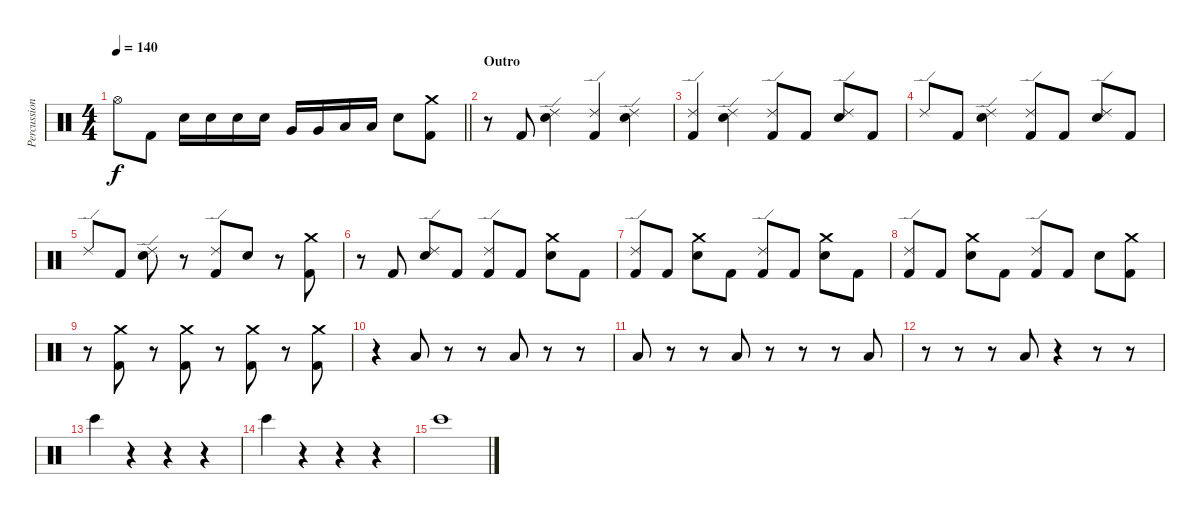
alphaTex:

\track ("Percussion" "Percussion") {instrument percussion}
\staff {score}
\articulation defaults
\ts (4 4)
\tempo 140
\clef neutral
\barLineRight lightlight
\ks c "Hi-Hat (open)".8{dy f} "Kick (hit) 2".8 "Electric Snare (hit)".16 "Electric Snare (hit)".16 "Electric Snare (hit)".16 "Electric Snare (hit)".16 "Very Low Tom (hit)".16 "Very Low Tom (hit)".16 "Low Tom (hit)".16 "Low Tom (hit)".16 "Electric Snare (hit)".8
("Crash medium (hit)" "Kick (hit) 2").8 |
\section ("" "Outro")
r.8 "Kick (hit) 2".8 ("Ride (edge) 2" "Electric Snare (hit)").4 ("Ride (edge) 2" "Kick (hit) 2").4 ("Ride (edge) 2" "Electric Snare (hit)").4 |
("Ride (edge) 2" "Kick (hit) 2").4 ("Ride (edge) 2" "Electric Snare (hit)").4 ("Ride (edge) 2" "Kick (hit) 2").8 "Kick (hit) 2".8 ("Ride (edge) 2" "Electric Snare (hit)").8 "Kick (hit) 2".8 |
"Ride (edge) 2".8 "Kick (hit) 2".8 ("Ride (edge) 2" "Electric Snare (hit)").4 ("Ride (edge) 2" "Kick (hit) 2").8 "Kick (hit) 2".8 ("Ride (edge) 2" "Electric Snare (hit)").8 "Kick (hit) 2".8 |
"Ride (edge) 2".8 "Kick (hit) 2".8 ("Ride (edge) 2" "Electric Snare (hit)").8 r.8 ("Ride (edge) 2" "Kick (hit) 2").8 "Electric Snare (hit)".8 r.8 ("Kick (hit) 2" "Crash medium (hit)").8 |
r.8 "Kick (hit) 2".8 ("Ride (edge) 2" "Electric Snare (hit)").8 "Kick (hit) 2".8 ("Ride (edge) 2" "Kick (hit) 2").8 "Kick (hit) 2".8 ("Crash medium (hit)" "Electric Snare (hit)").8 "Kick (hit) 2".8 |
("Ride (edge) 2" "Kick (hit) 2").8 "Kick (hit) 2".8 ("Crash medium (hit)" "Electric Snare (hit)").8 "Kick (hit) 2".8 ("Ride (edge) 2" "Kick (hit) 2").8 "Kick (hit) 2".8 ("Crash medium (hit)" "Electric Snare (hit)").8 "Kick (hit) 2".8 |
("Ride (edge) 2" "Kick (hit) 2").8 "Kick (hit) 2".8 ("Crash medium (hit)" "Electric Snare (hit)").8 "Kick (hit) 2".8 ("Ride (edge) 2" "Kick (hit) 2").8 "Kick (hit) 2".8 "Electric Snare (hit)".8 ("Crash medium (hit)" "Kick (hit) 2").8 |
r.8 ("Crash medium (hit)" "Kick (hit) 2").8 r.8 ("Crash medium (hit)" "Kick (hit) 2").8 r.8 ("Kick (hit) 2" "Crash medium (hit)").8 r.8 ("Kick (hit) 2" "Crash medium (hit)").8 |
r.4 "Low Tom (hit)".8 r.8 r.8 "Low Tom (hit)".8 r.8 r.8 |
"Low Tom (hit)".8 r.8 r.8 "Low Tom (hit)".8 r.8 r.8 r.8 "Low Tom (hit)".8 |
r.8 r.8 r.8 "Low Tom (hit)".8 r.4 r.8 r.8 |
"Bongo High (hit)".4 r.4 r.4 r.4 |
"Bongo High (hit)".4 r.4 r.4 r.4 |
"Bongo High (hit)".1
